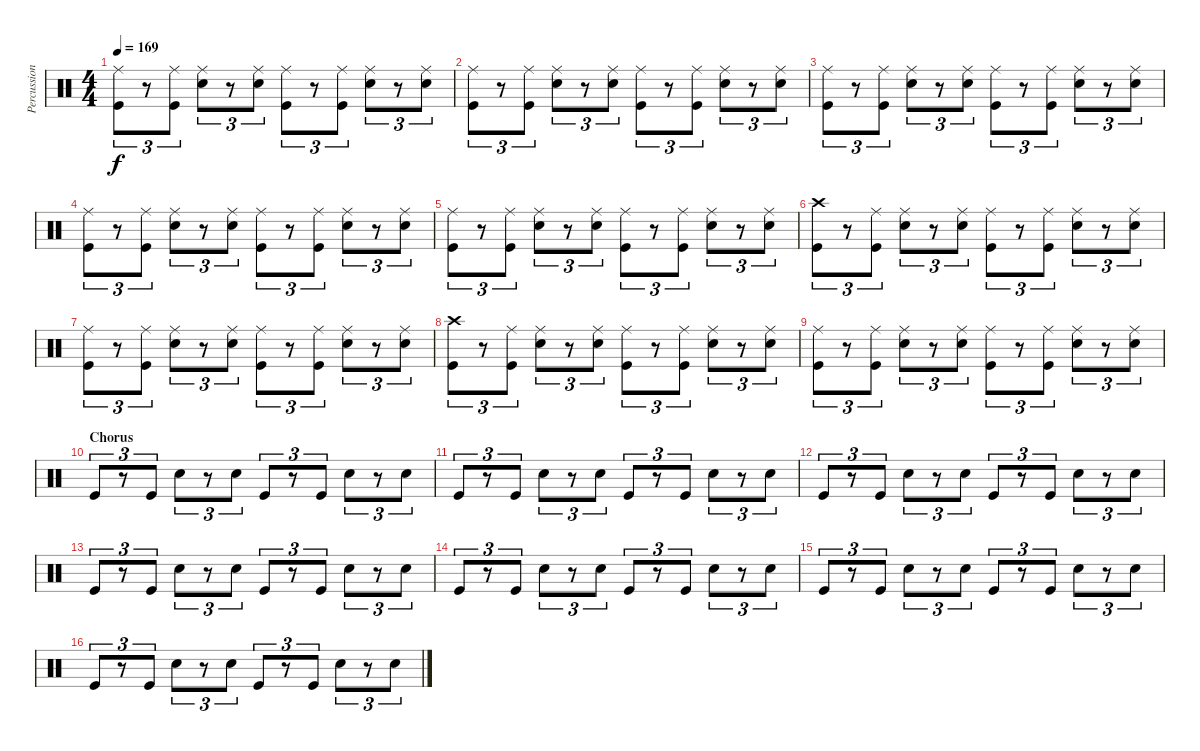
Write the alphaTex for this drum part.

\track ("Percussion" "Percussion") {instrument percussion}
\staff {score}
\articulation defaults
\ts (4 4)
\tempo 169
\clef neutral
\ks c
("Ride (middle)" "Kick (hit)").8{tu (3 2) dy f} r.8{tu (3 2)} ("Ride (middle)" "Kick (hit)").8{tu (3 2)} ("Ride (middle)" "Snare (hit) 2").8{tu (3 2)} r.8{tu (3 2)} ("Ride (middle)" "Snare (hit) 2").8{tu (3 2)} ("Ride (middle)" "Kick (hit)").8{tu (3 2)} r.8{tu (3 2)} ("Ride (middle)" "Kick (hit)").8{tu (3 2)} ("Ride (middle)" "Snare (hit) 2").8{tu (3 2)} r.8{tu (3 2)} ("Ride (middle)" "Snare (hit) 2").8{tu (3 2)} |
("Ride (middle)" "Kick (hit)").8{tu (3 2)} r.8{tu (3 2)} ("Ride (middle)" "Kick (hit)").8{tu (3 2)} ("Ride (middle)" "Snare (hit) 2").8{tu (3 2)} r.8{tu (3 2)} ("Ride (middle)" "Snare (hit) 2").8{tu (3 2)} ("Ride (middle)" "Kick (hit)").8{tu (3 2)} r.8{tu (3 2)} ("Ride (middle)" "Kick (hit)").8{tu (3 2)} ("Ride (middle)" "Snare (hit) 2").8{tu (3 2)} r.8{tu (3 2)} ("Ride (middle)" "Snare (hit) 2").8{tu (3 2)} |
("Ride (middle)" "Kick (hit)").8{tu (3 2)} r.8{tu (3 2)} ("Ride (middle)" "Kick (hit)").8{tu (3 2)} ("Ride (middle)" "Snare (hit) 2").8{tu (3 2)} r.8{tu (3 2)} ("Ride (middle)" "Snare (hit) 2").8{tu (3 2)} ("Ride (middle)" "Kick (hit)").8{tu (3 2)} r.8{tu (3 2)} ("Ride (middle)" "Kick (hit)").8{tu (3 2)} ("Ride (middle)" "Snare (hit) 2").8{tu (3 2)} r.8{tu (3 2)} ("Ride (middle)" "Snare (hit) 2").8{tu (3 2)} |
("Ride (middle)" "Kick (hit)").8{tu (3 2)} r.8{tu (3 2)} ("Ride (middle)" "Kick (hit)").8{tu (3 2)} ("Ride (middle)" "Snare (hit) 2").8{tu (3 2)} r.8{tu (3 2)} ("Ride (middle)" "Snare (hit) 2").8{tu (3 2)} ("Ride (middle)" "Kick (hit)").8{tu (3 2)} r.8{tu (3 2)} ("Ride (middle)" "Kick (hit)").8{tu (3 2)} ("Ride (middle)" "Snare (hit) 2").8{tu (3 2)} r.8{tu (3 2)} ("Ride (middle)" "Snare (hit) 2").8{tu (3 2)} |
("Ride (middle)" "Kick (hit)").8{tu (3 2)} r.8{tu (3 2)} ("Ride (middle)" "Kick (hit)").8{tu (3 2)} ("Ride (middle)" "Snare (hit) 2").8{tu (3 2)} r.8{tu (3 2)} ("Ride (middle)" "Snare (hit) 2").8{tu (3 2)} ("Ride (middle)" "Kick (hit)").8{tu (3 2)} r.8{tu (3 2)} ("Ride (middle)" "Kick (hit)").8{tu (3 2)} ("Ride (middle)" "Snare (hit) 2").8{tu (3 2)} r.8{tu (3 2)} ("Ride (middle)" "Snare (hit) 2").8{tu (3 2)} |
("Crash high (hit)" "Kick (hit)").8{tu (3 2)} r.8{tu (3 2)} ("Ride (middle)" "Kick (hit)").8{tu (3 2)} ("Ride (middle)" "Snare (hit) 2").8{tu (3 2)} r.8{tu (3 2)} ("Ride (middle)" "Snare (hit) 2").8{tu (3 2)} ("Ride (middle)" "Kick (hit)").8{tu (3 2)} r.8{tu (3 2)} ("Ride (middle)" "Kick (hit)").8{tu (3 2)} ("Ride (middle)" "Snare (hit) 2").8{tu (3 2)} r.8{tu (3 2)} ("Ride (middle)" "Snare (hit) 2").8{tu (3 2)} |
("Ride (middle)" "Kick (hit)").8{tu (3 2)} r.8{tu (3 2)} ("Ride (middle)" "Kick (hit)").8{tu (3 2)} ("Ride (middle)" "Snare (hit) 2").8{tu (3 2)} r.8{tu (3 2)} ("Ride (middle)" "Snare (hit) 2").8{tu (3 2)} ("Ride (middle)" "Kick (hit)").8{tu (3 2)} r.8{tu (3 2)} ("Ride (middle)" "Kick (hit)").8{tu (3 2)} ("Ride (middle)" "Snare (hit) 2").8{tu (3 2)} r.8{tu (3 2)} ("Ride (middle)" "Snare (hit) 2").8{tu (3 2)} |
("Crash high (hit)" "Kick (hit)").8{tu (3 2)} r.8{tu (3 2)} ("Ride (middle)" "Kick (hit)").8{tu (3 2)} ("Ride (middle)" "Snare (hit) 2").8{tu (3 2)} r.8{tu (3 2)} ("Ride (middle)" "Snare (hit) 2").8{tu (3 2)} ("Ride (middle)" "Kick (hit)").8{tu (3 2)} r.8{tu (3 2)} ("Ride (middle)" "Kick (hit)").8{tu (3 2)} ("Ride (middle)" "Snare (hit) 2").8{tu (3 2)} r.8{tu (3 2)} ("Ride (middle)" "Snare (hit) 2").8{tu (3 2)} |
("Ride (middle)" "Kick (hit)").8{tu (3 2)} r.8{tu (3 2)} ("Ride (middle)" "Kick (hit)").8{tu (3 2)} ("Ride (middle)" "Snare (hit) 2").8{tu (3 2)} r.8{tu (3 2)} ("Ride (middle)" "Snare (hit) 2").8{tu (3 2)} ("Ride (middle)" "Kick (hit)").8{tu (3 2)} r.8{tu (3 2)} ("Ride (middle)" "Kick (hit)").8{tu (3 2)} ("Ride (middle)" "Snare (hit) 2").8{tu (3 2)} r.8{tu (3 2)} ("Ride (middle)" "Snare (hit) 2").8{tu (3 2)} |
\section ("" "Chorus")
"Kick (hit)".8{tu (3 2)} r.8{tu (3 2)} "Kick (hit)".8{tu (3 2)} "Snare (hit) 2".8{tu (3 2)} r.8{tu (3 2)} "Snare (hit) 2".8{tu (3 2)} "Kick (hit)".8{tu (3 2)} r.8{tu (3 2)} "Kick (hit)".8{tu (3 2)} "Snare (hit) 2".8{tu (3 2)} r.8{tu (3 2)} "Snare (hit) 2".8{tu (3 2)} |
"Kick (hit)".8{tu (3 2)} r.8{tu (3 2)} "Kick (hit)".8{tu (3 2)} "Snare (hit) 2".8{tu (3 2)} r.8{tu (3 2)} "Snare (hit) 2".8{tu (3 2)} "Kick (hit)".8{tu (3 2)} r.8{tu (3 2)} "Kick (hit)".8{tu (3 2)} "Snare (hit) 2".8{tu (3 2)} r.8{tu (3 2)} "Snare (hit) 2".8{tu (3 2)} |
"Kick (hit)".8{tu (3 2)} r.8{tu (3 2)} "Kick (hit)".8{tu (3 2)} "Snare (hit) 2".8{tu (3 2)} r.8{tu (3 2)} "Snare (hit) 2".8{tu (3 2)} "Kick (hit)".8{tu (3 2)} r.8{tu (3 2)} "Kick (hit)".8{tu (3 2)} "Snare (hit) 2".8{tu (3 2)} r.8{tu (3 2)} "Snare (hit) 2".8{tu (3 2)} |
"Kick (hit)".8{tu (3 2)} r.8{tu (3 2)} "Kick (hit)".8{tu (3 2)} "Snare (hit) 2".8{tu (3 2)} r.8{tu (3 2)} "Snare (hit) 2".8{tu (3 2)} "Kick (hit)".8{tu (3 2)} r.8{tu (3 2)} "Kick (hit)".8{tu (3 2)} "Snare (hit) 2".8{tu (3 2)} r.8{tu (3 2)} "Snare (hit) 2".8{tu (3 2)} |
"Kick (hit)".8{tu (3 2)} r.8{tu (3 2)} "Kick (hit)".8{tu (3 2)} "Snare (hit) 2".8{tu (3 2)} r.8{tu (3 2)} "Snare (hit) 2".8{tu (3 2)} "Kick (hit)".8{tu (3 2)} r.8{tu (3 2)} "Kick (hit)".8{tu (3 2)} "Snare (hit) 2".8{tu (3 2)} r.8{tu (3 2)} "Snare (hit) 2".8{tu (3 2)} |
"Kick (hit)".8{tu (3 2)} r.8{tu (3 2)} "Kick (hit)".8{tu (3 2)} "Snare (hit) 2".8{tu (3 2)} r.8{tu (3 2)} "Snare (hit) 2".8{tu (3 2)} "Kick (hit)".8{tu (3 2)} r.8{tu (3 2)} "Kick (hit)".8{tu (3 2)} "Snare (hit) 2".8{tu (3 2)} r.8{tu (3 2)} "Snare (hit) 2".8{tu (3 2)} |
"Kick (hit)".8{tu (3 2)} r.8{tu (3 2)} "Kick (hit)".8{tu (3 2)} "Snare (hit) 2".8{tu (3 2)} r.8{tu (3 2)} "Snare (hit) 2".8{tu (3 2)} "Kick (hit)".8{tu (3 2)} r.8{tu (3 2)} "Kick (hit)".8{tu (3 2)} "Snare (hit) 2".8{tu (3 2)} r.8{tu (3 2)} "Snare (hit) 2".8{tu (3 2)}
